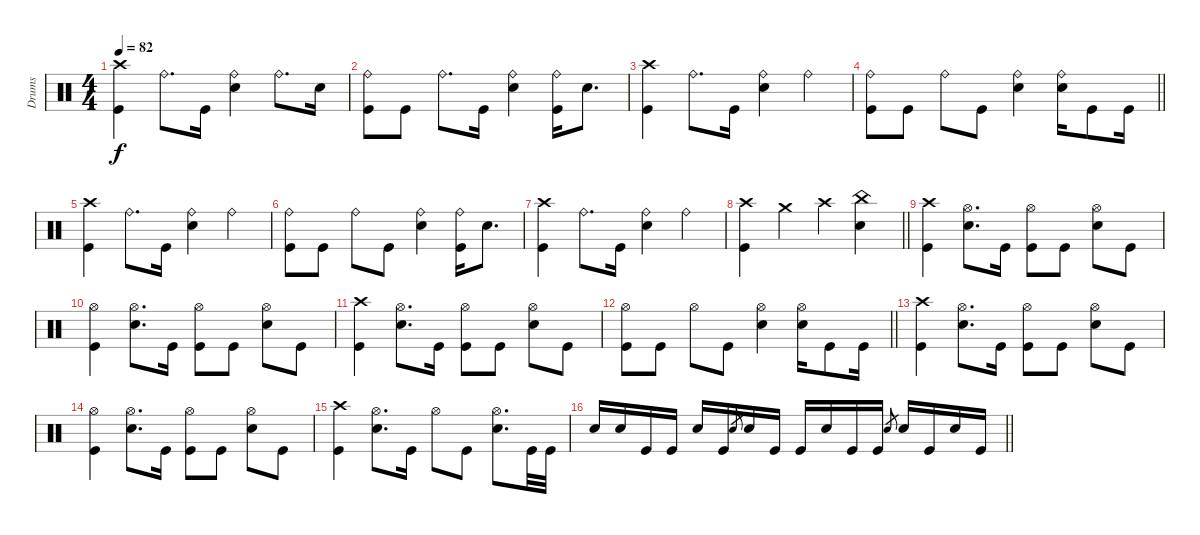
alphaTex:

\track ("Drums" "Drums") {instrument percussion}
\staff
\articulation defaults
\ts (4 4)
\section ("" "")
\tempo 82
\clef neutral
\ks c
("Crash high (hit)" "Kick (hit)").4{dy f} "Ride (bell)".8{d} "Kick (hit)".16 ("Ride (bell)" "Electric Snare (hit)").4 "Ride (bell)".8{d} "Electric Snare (hit)".16 |
("Ride (bell)" "Kick (hit)").8 "Kick (hit)".8 "Ride (bell)".8{d} "Kick (hit)".16 ("Ride (bell)" "Electric Snare (hit)").4 ("Ride (bell)" "Kick (hit)").16 "Electric Snare (hit)".8{d} |
("Crash high (hit)" "Kick (hit)").4 "Ride (bell)".8{d} "Kick (hit)".16 ("Ride (bell)" "Electric Snare (hit)").4 "Ride (bell)".4 |
\barLineRight lightlight
("Ride (bell)" "Kick (hit)").8 "Kick (hit)".8 "Ride (bell)".8 "Kick (hit)".8 ("Ride (bell)" "Electric Snare (hit)").4 ("Ride (bell)" "Electric Snare (hit)").16 "Kick (hit)".8 "Kick (hit)".16 |
("Crash high (hit)" "Kick (hit)").4 "Ride (bell)".8{d} "Kick (hit)".16 ("Ride (bell)" "Electric Snare (hit)").4 "Ride (bell)".4 |
("Ride (bell)" "Kick (hit)").8 "Kick (hit)".8 "Ride (bell)".8 "Kick (hit)".8 ("Ride (bell)" "Electric Snare (hit)").4 ("Ride (bell)" "Kick (hit)").16 "Electric Snare (hit)".8{d} |
("Crash high (hit)" "Kick (hit)").4 "Ride (bell)".8{d} "Kick (hit)".16 ("Ride (bell)" "Electric Snare (hit)").4 "Ride (bell)".4 |
\barLineRight lightlight
("Crash high (hit)" "Kick (hit)").4 "Crash medium (hit)".4 "Crash high (hit)".4 ("China (hit)" "Electric Snare (hit)").4 |
\section ("" "")
("Crash high (hit)" "Kick (hit)").4 ("Hi-Hat (open)" "Electric Snare (hit)").8{d} "Kick (hit)".16 ("Hi-Hat (open)" "Kick (hit)").8 "Kick (hit)".8 ("Hi-Hat (open)" "Electric Snare (hit)").8 "Kick (hit)".8 |
("Hi-Hat (open)" "Kick (hit)").4 ("Hi-Hat (open)" "Electric Snare (hit)").8{d} "Kick (hit)".16 ("Hi-Hat (open)" "Kick (hit)").8 "Kick (hit)".8 ("Hi-Hat (open)" "Electric Snare (hit)").8 "Kick (hit)".8 |
("Crash high (hit)" "Kick (hit)").4 ("Hi-Hat (open)" "Electric Snare (hit)").8{d} "Kick (hit)".16 ("Hi-Hat (open)" "Kick (hit)").8 "Kick (hit)".8 ("Hi-Hat (open)" "Electric Snare (hit)").8 "Kick (hit)".8 |
\barLineRight lightlight
("Hi-Hat (open)" "Kick (hit)").8 "Kick (hit)".8 "Hi-Hat (open)".8 "Kick (hit)".8 ("Hi-Hat (open)" "Electric Snare (hit)").4 ("Hi-Hat (open)" "Electric Snare (hit)").16 "Kick (hit)".8 "Kick (hit)".16 |
("Crash high (hit)" "Kick (hit)").4 ("Hi-Hat (open)" "Electric Snare (hit)").8{d} "Kick (hit)".16 ("Hi-Hat (open)" "Kick (hit)").8 "Kick (hit)".8 ("Hi-Hat (open)" "Electric Snare (hit)").8 "Kick (hit)".8 |
("Hi-Hat (open)" "Kick (hit)").4 ("Hi-Hat (open)" "Electric Snare (hit)").8{d} "Kick (hit)".16 ("Hi-Hat (open)" "Kick (hit)").8 "Kick (hit)".8 ("Hi-Hat (open)" "Electric Snare (hit)").8 "Kick (hit)".8 |
("Crash high (hit)" "Kick (hit)").4 ("Hi-Hat (open)" "Electric Snare (hit)").8{d} "Kick (hit)".16 "Hi-Hat (open)".8 "Kick (hit)".8 ("Hi-Hat (open)" "Electric Snare (hit)").8{d} "Kick (hit)".32 "Kick (hit)".32 |
\barLineRight lightlight "Electric Snare (hit)".16 "Electric Snare (hit)".16 "Kick (hit)".16 "Kick (hit)".16 "Electric Snare (hit)".16 "Kick (hit)".16 "Electric Snare (hit)".8{gr} "Electric Snare (hit)".16 "Kick (hit)".16 "Kick (hit)".16 "Electric Snare (hit)".16 "Kick (hit)".16 "Kick (hit)".16 "Electric Snare (hit)".8{gr} "Electric Snare (hit)".16 "Kick (hit)".16 "Electric Snare (hit)".16 "Kick (hit)".16
